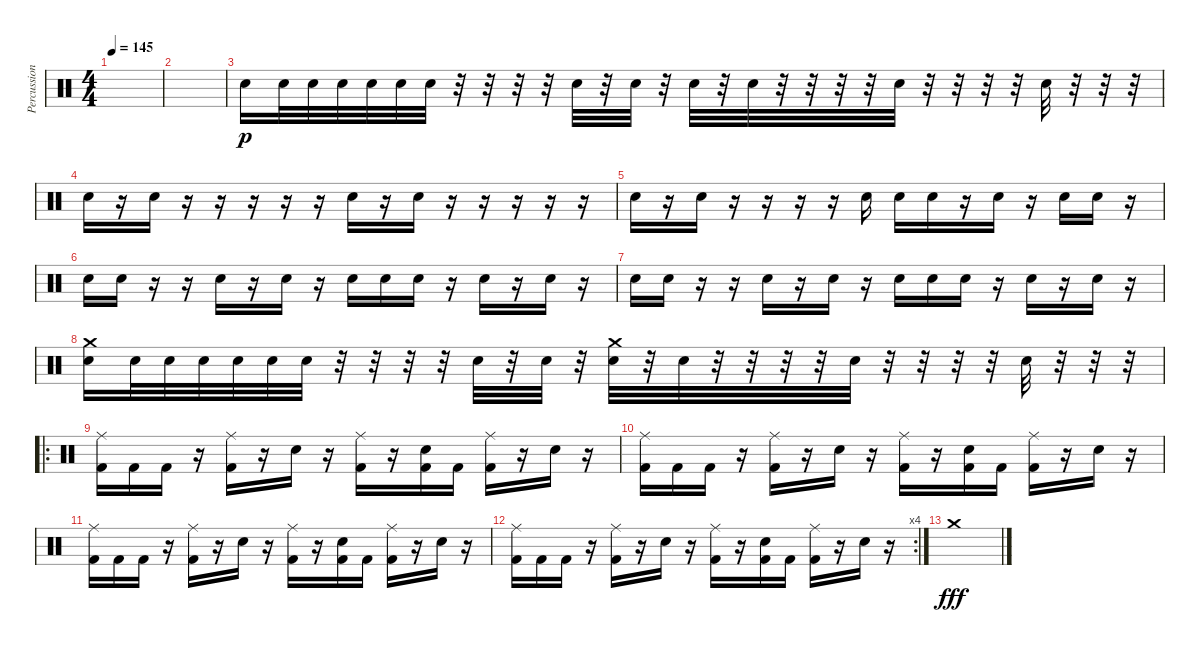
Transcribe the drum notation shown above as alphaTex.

\track ("Percussion" "Percussion") {instrument percussion}
\staff {score}
\articulation defaults
\ts (4 4)
\tempo 145
\clef neutral
\ks c
|
|
"Snare (hit) 2".16{dy p} "Snare (hit) 2".32 "Snare (hit) 2".32 "Snare (hit) 2".32 "Snare (hit) 2".32 "Snare (hit) 2".32 "Snare (hit) 2".32 r.32 r.32 r.32 r.32 "Snare (hit) 2".32 r.32 "Snare (hit) 2".32 r.32 "Snare (hit) 2".32 r.32 "Snare (hit) 2".32 r.32 r.32 r.32 r.32 "Snare (hit) 2".32 r.32 r.32 r.32 r.32 "Snare (hit) 2".32 r.32 r.32 r.32 |
"Snare (hit) 2".16 r.16 "Snare (hit) 2".16 r.16 r.16 r.16 r.16 r.16 "Snare (hit) 2".16 r.16 "Snare (hit) 2".16 r.16 r.16 r.16 r.16 r.16 |
"Snare (hit) 2".16 r.16 "Snare (hit) 2".16 r.16 r.16 r.16 r.16 "Snare (hit) 2".16 "Snare (hit) 2".16 "Snare (hit) 2".16 r.16 "Snare (hit) 2".16 r.16 "Snare (hit) 2".16 "Snare (hit) 2".16 r.16 |
"Snare (hit) 2".16 "Snare (hit) 2".16 r.16 r.16 "Snare (hit) 2".16 r.16 "Snare (hit) 2".16 r.16 "Snare (hit) 2".16 "Snare (hit) 2".16 "Snare (hit) 2".16 r.16 "Snare (hit) 2".16 r.16 "Snare (hit) 2".16 r.16 |
"Snare (hit) 2".16 "Snare (hit) 2".16 r.16 r.16 "Snare (hit) 2".16 r.16 "Snare (hit) 2".16 r.16 "Snare (hit) 2".16 "Snare (hit) 2".16 "Snare (hit) 2".16 r.16 "Snare (hit) 2".16 r.16 "Snare (hit) 2".16 r.16 |
("Snare (hit) 2" "Crash medium (hit)").16 "Snare (hit) 2".32 "Snare (hit) 2".32 "Snare (hit) 2".32 "Snare (hit) 2".32 "Snare (hit) 2".32 "Snare (hit) 2".32 r.32 r.32 r.32 r.32 "Snare (hit) 2".32 r.32 "Snare (hit) 2".32 r.32 ("Snare (hit) 2" "Crash medium (hit)").32 r.32 "Snare (hit) 2".32 r.32 r.32 r.32 r.32 "Snare (hit) 2".32 r.32 r.32 r.32 r.32 "Snare (hit) 2".32 r.32 r.32 r.32 |
\ro
("Ride (middle)" "Kick (hit) 2").16 "Kick (hit) 2".16 "Kick (hit) 2".16 r.16 ("Ride (middle)" "Kick (hit) 2").16 r.16 "Snare (hit) 2".16 r.16 ("Ride (middle)" "Kick (hit) 2").16 r.16 ("Snare (hit) 2" "Kick (hit) 2").16 "Kick (hit) 2".16 ("Ride (middle)" "Kick (hit) 2").16 r.16 "Snare (hit) 2".16 r.16 |
("Ride (middle)" "Kick (hit) 2").16 "Kick (hit) 2".16 "Kick (hit) 2".16 r.16 ("Ride (middle)" "Kick (hit) 2").16 r.16 "Snare (hit) 2".16 r.16 ("Ride (middle)" "Kick (hit) 2").16 r.16 ("Snare (hit) 2" "Kick (hit) 2").16 "Kick (hit) 2".16 ("Ride (middle)" "Kick (hit) 2").16 r.16 "Snare (hit) 2".16 r.16 |
("Ride (middle)" "Kick (hit) 2").16 "Kick (hit) 2".16 "Kick (hit) 2".16 r.16 ("Ride (middle)" "Kick (hit) 2").16 r.16 "Snare (hit) 2".16 r.16 ("Ride (middle)" "Kick (hit) 2").16 r.16 ("Snare (hit) 2" "Kick (hit) 2").16 "Kick (hit) 2".16 ("Ride (middle)" "Kick (hit) 2").16 r.16 "Snare (hit) 2".16 r.16 |
\rc 4
("Ride (middle)" "Kick (hit) 2").16 "Kick (hit) 2".16 "Kick (hit) 2".16 r.16 ("Ride (middle)" "Kick (hit) 2").16 r.16 "Snare (hit) 2".16 r.16 ("Ride (middle)" "Kick (hit) 2").16 r.16 ("Snare (hit) 2" "Kick (hit) 2").16 "Kick (hit) 2".16 ("Ride (middle)" "Kick (hit) 2").16 r.16 "Snare (hit) 2".16 r.16 |
"Crash medium (hit)".1{dy fff}
